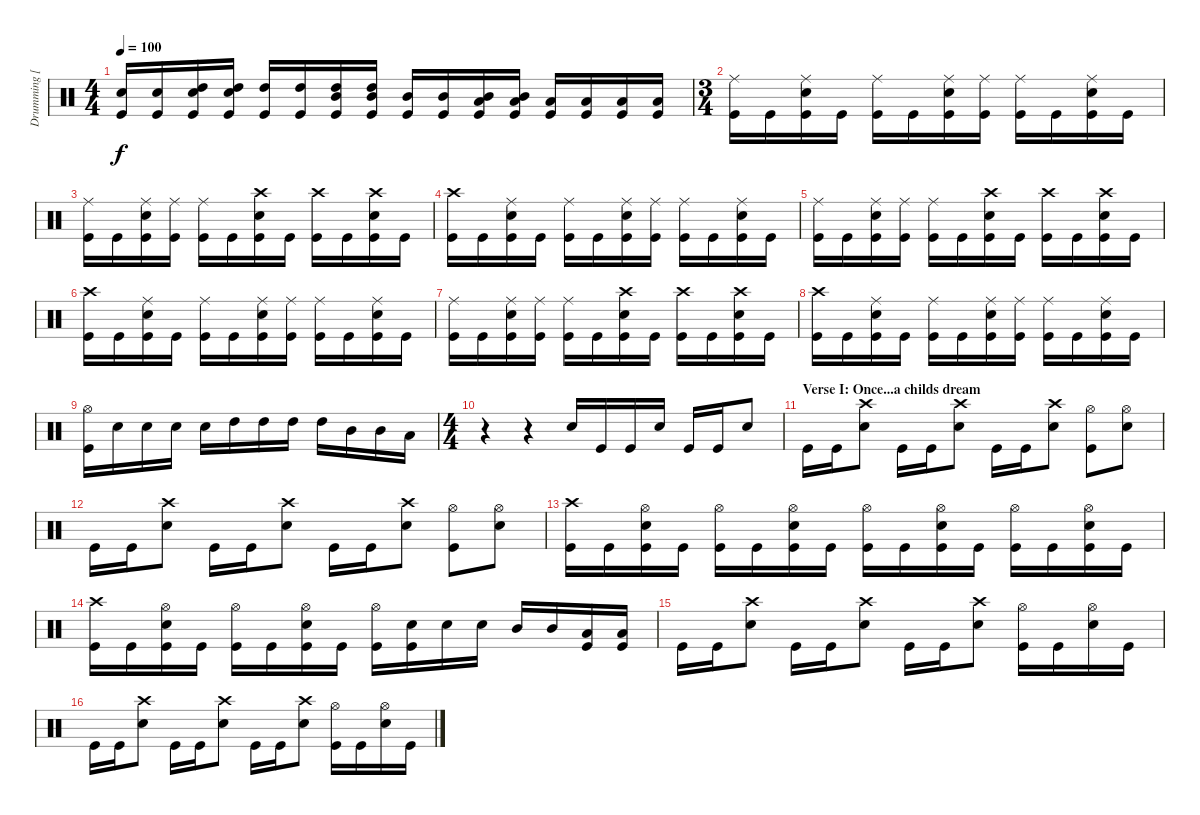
\track ("Drumming [Jukka]" "Drumming [") {instrument percussion}
\staff {score}
\articulation defaults
\ts (4 4)
\tempo 100
\clef neutral
\ks c
("Electric Snare (hit)" "Kick (hit)").16{dy f} ("Electric Snare (hit)" "Kick (hit)").16 ("High Tom (hit)" "Electric Snare (hit)" "Kick (hit)").16 ("High Tom (hit)" "Electric Snare (hit)" "Kick (hit)").16 ("High Tom (hit)" "Kick (hit)").16 ("High Tom (hit)" "Kick (hit)").16 ("High Tom (hit)" "Mid Tom (hit)" "Kick (hit)").16 ("High Tom (hit)" "Mid Tom (hit)" "Kick (hit)").16 ("Mid Tom (hit)" "Kick (hit)").16 ("Mid Tom (hit)" "Kick (hit)").16 ("Mid Tom (hit)" "Low Tom (hit)" "Kick (hit)").16 ("Mid Tom (hit)" "Low Tom (hit)" "Kick (hit)").16 ("Low Tom (hit)" "Kick (hit)").16 ("Low Tom (hit)" "Kick (hit)").16 ("Low Tom (hit)" "Kick (hit)").16 ("Low Tom (hit)" "Kick (hit)").16 |
\ts (3 4)
("Ride (middle)" "Kick (hit)").16 "Kick (hit)".16 ("Ride (middle)" "Electric Snare (hit)" "Kick (hit)").16 "Kick (hit)".16 ("Ride (middle)" "Kick (hit)").16 "Kick (hit)".16 ("Ride (middle)" "Electric Snare (hit)" "Kick (hit)").16 ("Ride (middle)" "Kick (hit)").16 ("Ride (middle)" "Kick (hit)").16 "Kick (hit)".16 ("Ride (middle)" "Electric Snare (hit)" "Kick (hit)").16 "Kick (hit)".16 |
("Ride (middle)" "Kick (hit)").16 "Kick (hit)".16 ("Ride (middle)" "Electric Snare (hit)" "Kick (hit)").16 ("Ride (middle)" "Kick (hit)").16 ("Ride (middle)" "Kick (hit)").16 "Kick (hit)".16 ("Crash high (hit)" "Electric Snare (hit)" "Kick (hit)").16 "Kick (hit)".16 ("Crash high (hit)" "Kick (hit)").16 "Kick (hit)".16 ("Crash high (hit)" "Electric Snare (hit)" "Kick (hit)").16 "Kick (hit)".16 |
("Crash high (hit)" "Kick (hit)").16 "Kick (hit)".16 ("Ride (middle)" "Electric Snare (hit)" "Kick (hit)").16 "Kick (hit)".16 ("Ride (middle)" "Kick (hit)").16 "Kick (hit)".16 ("Ride (middle)" "Electric Snare (hit)" "Kick (hit)").16 ("Ride (middle)" "Kick (hit)").16 ("Ride (middle)" "Kick (hit)").16 "Kick (hit)".16 ("Ride (middle)" "Electric Snare (hit)" "Kick (hit)").16 "Kick (hit)".16 |
("Ride (middle)" "Kick (hit)").16 "Kick (hit)".16 ("Ride (middle)" "Electric Snare (hit)" "Kick (hit)").16 ("Ride (middle)" "Kick (hit)").16 ("Ride (middle)" "Kick (hit)").16 "Kick (hit)".16 ("Crash high (hit)" "Electric Snare (hit)" "Kick (hit)").16 "Kick (hit)".16 ("Crash high (hit)" "Kick (hit)").16 "Kick (hit)".16 ("Crash high (hit)" "Electric Snare (hit)" "Kick (hit)").16 "Kick (hit)".16 |
("Crash high (hit)" "Kick (hit)").16 "Kick (hit)".16 ("Ride (middle)" "Electric Snare (hit)" "Kick (hit)").16 "Kick (hit)".16 ("Ride (middle)" "Kick (hit)").16 "Kick (hit)".16 ("Ride (middle)" "Electric Snare (hit)" "Kick (hit)").16 ("Ride (middle)" "Kick (hit)").16 ("Ride (middle)" "Kick (hit)").16 "Kick (hit)".16 ("Ride (middle)" "Electric Snare (hit)" "Kick (hit)").16 "Kick (hit)".16 |
("Ride (middle)" "Kick (hit)").16 "Kick (hit)".16 ("Ride (middle)" "Electric Snare (hit)" "Kick (hit)").16 ("Ride (middle)" "Kick (hit)").16 ("Ride (middle)" "Kick (hit)").16 "Kick (hit)".16 ("Crash high (hit)" "Electric Snare (hit)" "Kick (hit)").16 "Kick (hit)".16 ("Crash high (hit)" "Kick (hit)").16 "Kick (hit)".16 ("Crash high (hit)" "Electric Snare (hit)" "Kick (hit)").16 "Kick (hit)".16 |
("Crash high (hit)" "Kick (hit)").16 "Kick (hit)".16 ("Ride (middle)" "Electric Snare (hit)" "Kick (hit)").16 "Kick (hit)".16 ("Ride (middle)" "Kick (hit)").16 "Kick (hit)".16 ("Ride (middle)" "Electric Snare (hit)" "Kick (hit)").16 ("Ride (middle)" "Kick (hit)").16 ("Ride (middle)" "Kick (hit)").16 "Kick (hit)".16 ("Ride (middle)" "Electric Snare (hit)" "Kick (hit)").16 "Kick (hit)".16 |
("Hi-Hat (open)" "Kick (hit)").16 "Electric Snare (hit)".16 "Electric Snare (hit)".16 "Electric Snare (hit)".16 "Electric Snare (hit)".16 "High Tom (hit)".16 "High Tom (hit)".16 "High Tom (hit)".16 "High Tom (hit)".16 "Mid Tom (hit)".16 "Mid Tom (hit)".16 "Low Tom (hit)".16 |
\ts (4 4)
r.4 r.4 "Electric Snare (hit)".16 "Kick (hit)".16 "Kick (hit)".16 "Electric Snare (hit)".16 "Kick (hit)".16 "Kick (hit)".16 "Electric Snare (hit)".8 |
\section ("" "Verse I: Once...a childs dream")
"Kick (hit)".16 "Kick (hit)".16 ("Crash high (hit)" "Electric Snare (hit)").8 "Kick (hit)".16 "Kick (hit)".16 ("Crash high (hit)" "Electric Snare (hit)").8 "Kick (hit)".16 "Kick (hit)".16 ("Crash high (hit)" "Electric Snare (hit)").8 ("Hi-Hat (open)" "Kick (hit)").8 ("Hi-Hat (open)" "Electric Snare (hit)").8 |
"Kick (hit)".16 "Kick (hit)".16 ("Crash high (hit)" "Electric Snare (hit)").8 "Kick (hit)".16 "Kick (hit)".16 ("Crash high (hit)" "Electric Snare (hit)").8 "Kick (hit)".16 "Kick (hit)".16 ("Crash high (hit)" "Electric Snare (hit)").8 ("Hi-Hat (open)" "Kick (hit)").8 ("Hi-Hat (open)" "Electric Snare (hit)").8 |
("Crash high (hit)" "Kick (hit)").16 "Kick (hit)".16 ("Hi-Hat (open)" "Electric Snare (hit)" "Kick (hit)").16 "Kick (hit)".16 ("Hi-Hat (open)" "Kick (hit)").16 "Kick (hit)".16 ("Hi-Hat (open)" "Electric Snare (hit)" "Kick (hit)").16 "Kick (hit)".16 ("Hi-Hat (open)" "Kick (hit)").16 "Kick (hit)".16 ("Hi-Hat (open)" "Electric Snare (hit)" "Kick (hit)").16 "Kick (hit)".16 ("Hi-Hat (open)" "Kick (hit)").16 "Kick (hit)".16 ("Hi-Hat (open)" "Electric Snare (hit)" "Kick (hit)").16 "Kick (hit)".16 |
("Crash high (hit)" "Kick (hit)").16 "Kick (hit)".16 ("Hi-Hat (open)" "Electric Snare (hit)" "Kick (hit)").16 "Kick (hit)".16 ("Hi-Hat (open)" "Kick (hit)").16 "Kick (hit)".16 ("Hi-Hat (open)" "Electric Snare (hit)" "Kick (hit)").16 "Kick (hit)".16 ("Hi-Hat (open)" "Kick (hit)").16 ("Electric Snare (hit)" "Kick (hit)").16 "Electric Snare (hit)".16 "Electric Snare (hit)".16 "Mid Tom (hit)".16 "Mid Tom (hit)".16 ("Low Tom (hit)" "Kick (hit)").16 ("Low Tom (hit)" "Kick (hit)").16 |
"Kick (hit)".16 "Kick (hit)".16 ("Crash high (hit)" "Electric Snare (hit)").8 "Kick (hit)".16 "Kick (hit)".16 ("Crash high (hit)" "Electric Snare (hit)").8 "Kick (hit)".16 "Kick (hit)".16 ("Crash high (hit)" "Electric Snare (hit)").8 ("Hi-Hat (open)" "Kick (hit)").16 "Kick (hit)".16 ("Hi-Hat (open)" "Electric Snare (hit)").16 "Kick (hit)".16 |
"Kick (hit)".16 "Kick (hit)".16 ("Crash high (hit)" "Electric Snare (hit)").8 "Kick (hit)".16 "Kick (hit)".16 ("Crash high (hit)" "Electric Snare (hit)").8 "Kick (hit)".16 "Kick (hit)".16 ("Crash high (hit)" "Electric Snare (hit)").8 ("Hi-Hat (open)" "Kick (hit)").16 "Kick (hit)".16 ("Hi-Hat (open)" "Electric Snare (hit)").16 "Kick (hit)".16
